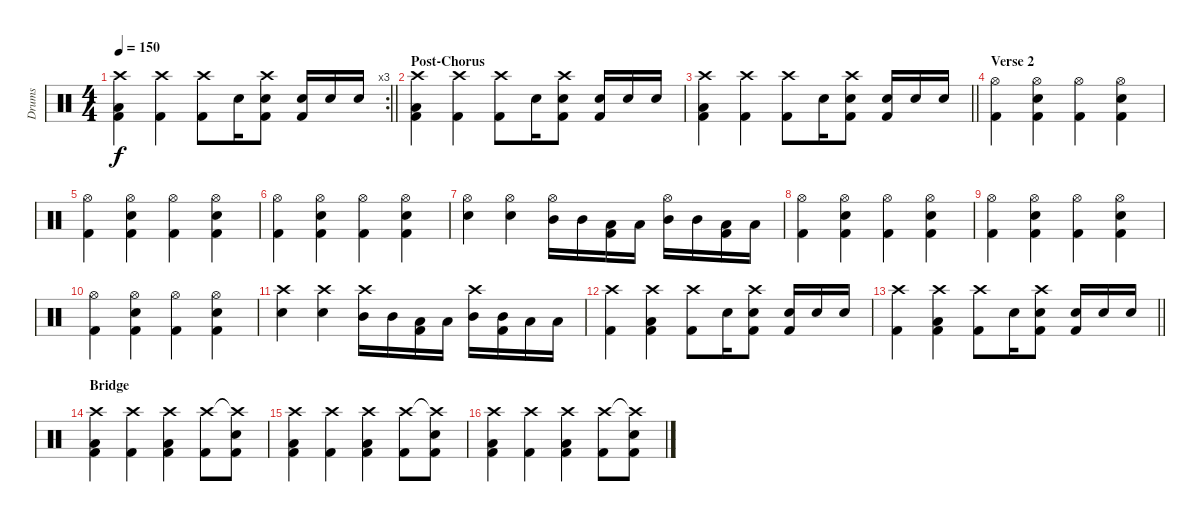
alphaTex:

\track ("Drums" "Drums") {instrument percussion}
\staff {score}
\articulation defaults
\rc 3
\ts (4 4)
\tempo 150
\clef neutral
\barLineRight lightlight
\ks c
("Crash high (hit)" "Kick (hit) 2" "Low Tom (hit)").4{dy f} ("Crash high (hit)" "Kick (hit) 2").4 ("Crash high (hit)" "Kick (hit) 2").8 "Electric Snare (hit)".16 ("Crash high (hit)" "Kick (hit) 2" "Electric Snare (hit)").8 ("Kick (hit) 2" "Electric Snare (hit)").16 "Electric Snare (hit)".16 "Electric Snare (hit)".16 |
\section ("" "Post-Chorus")
("Crash high (hit)" "Kick (hit) 2" "Low Tom (hit)").4 ("Crash high (hit)" "Kick (hit) 2").4 ("Crash high (hit)" "Kick (hit) 2").8 "Electric Snare (hit)".16 ("Crash high (hit)" "Kick (hit) 2" "Electric Snare (hit)").8 ("Kick (hit) 2" "Electric Snare (hit)").16 "Electric Snare (hit)".16 "Electric Snare (hit)".16 |
\barLineRight lightlight
("Crash high (hit)" "Kick (hit) 2" "Low Tom (hit)").4 ("Crash high (hit)" "Kick (hit) 2").4 ("Crash high (hit)" "Kick (hit) 2").8 "Electric Snare (hit)".16 ("Crash high (hit)" "Kick (hit) 2" "Electric Snare (hit)").8 ("Kick (hit) 2" "Electric Snare (hit)").16 "Electric Snare (hit)".16 "Electric Snare (hit)".16 |
\section ("" "Verse 2")
("Hi-Hat (open)" "Kick (hit) 2").4 ("Hi-Hat (open)" "Kick (hit) 2" "Electric Snare (hit)").4 ("Hi-Hat (open)" "Kick (hit) 2").4 ("Hi-Hat (open)" "Kick (hit) 2" "Electric Snare (hit)").4 |
("Hi-Hat (open)" "Kick (hit) 2").4 ("Hi-Hat (open)" "Kick (hit) 2" "Electric Snare (hit)").4 ("Hi-Hat (open)" "Kick (hit) 2").4 ("Hi-Hat (open)" "Kick (hit) 2" "Electric Snare (hit)").4 |
("Hi-Hat (open)" "Kick (hit) 2").4 ("Hi-Hat (open)" "Kick (hit) 2" "Electric Snare (hit)").4 ("Hi-Hat (open)" "Kick (hit) 2").4 ("Hi-Hat (open)" "Kick (hit) 2" "Electric Snare (hit)").4 |
("Hi-Hat (open)" "Electric Snare (hit)").4 ("Hi-Hat (open)" "Electric Snare (hit)").4 ("Hi-Hat (open)" "Mid Tom (hit)").16 "Mid Tom (hit)".16 ("Kick (hit) 2" "Low Tom (hit)").16 "Low Tom (hit)".16 ("Hi-Hat (open)" "Mid Tom (hit)").16 "Mid Tom (hit)".16 ("Kick (hit) 2" "Low Tom (hit)").16 "Low Tom (hit)".16 |
("Hi-Hat (open)" "Kick (hit) 2").4 ("Hi-Hat (open)" "Kick (hit) 2" "Electric Snare (hit)").4 ("Hi-Hat (open)" "Kick (hit) 2").4 ("Hi-Hat (open)" "Kick (hit) 2" "Electric Snare (hit)").4 |
("Hi-Hat (open)" "Kick (hit) 2").4 ("Hi-Hat (open)" "Kick (hit) 2" "Electric Snare (hit)").4 ("Hi-Hat (open)" "Kick (hit) 2").4 ("Hi-Hat (open)" "Kick (hit) 2" "Electric Snare (hit)").4 |
("Hi-Hat (open)" "Kick (hit) 2").4 ("Hi-Hat (open)" "Kick (hit) 2" "Electric Snare (hit)").4 ("Hi-Hat (open)" "Kick (hit) 2").4 ("Hi-Hat (open)" "Kick (hit) 2" "Electric Snare (hit)").4 |
("Crash high (hit)" "Electric Snare (hit)").4 ("Crash high (hit)" "Electric Snare (hit)").4 ("Crash high (hit)" "Mid Tom (hit)").16 "Mid Tom (hit)".16 ("Kick (hit) 2" "Low Tom (hit)").16 "Low Tom (hit)".16 ("Crash high (hit)" "Mid Tom (hit)").16 ("Kick (hit) 2" "Mid Tom (hit)").16 "Low Tom (hit)".16 "Low Tom (hit)".16 |
("Crash high (hit)" "Kick (hit) 2").4 ("Crash high (hit)" "Kick (hit) 2" "Low Tom (hit)").4 ("Crash high (hit)" "Kick (hit) 2").8 "Electric Snare (hit)".16 ("Crash high (hit)" "Kick (hit) 2" "Electric Snare (hit)").8 ("Kick (hit) 2" "Electric Snare (hit)").16 "Electric Snare (hit)".16 "Electric Snare (hit)".16 |
\barLineRight lightlight
("Crash high (hit)" "Kick (hit) 2").4 ("Crash high (hit)" "Kick (hit) 2" "Low Tom (hit)").4 ("Crash high (hit)" "Kick (hit) 2").8 "Electric Snare (hit)".16 ("Crash high (hit)" "Kick (hit) 2" "Electric Snare (hit)").8 ("Kick (hit) 2" "Electric Snare (hit)").16 "Electric Snare (hit)".16 "Electric Snare (hit)".16 |
\section ("" "Bridge")
("Crash high (hit)" "Kick (hit) 2" "Low Tom (hit)").4 ("Crash high (hit)" "Kick (hit) 2").4 ("Crash high (hit)" "Kick (hit) 2" "Low Tom (hit)").4 ("Crash high (hit)" "Kick (hit) 2").8 ("Crash high (hit)"{t} "Kick (hit) 2" "Electric Snare (hit)").8 |
("Crash high (hit)" "Kick (hit) 2" "Low Tom (hit)").4 ("Crash high (hit)" "Kick (hit) 2").4 ("Crash high (hit)" "Kick (hit) 2" "Low Tom (hit)").4 ("Crash high (hit)" "Kick (hit) 2").8 ("Crash high (hit)"{t} "Kick (hit) 2" "Electric Snare (hit)").8 |
("Crash high (hit)" "Kick (hit) 2" "Low Tom (hit)").4 ("Crash high (hit)" "Kick (hit) 2").4 ("Crash high (hit)" "Kick (hit) 2" "Low Tom (hit)").4 ("Crash high (hit)" "Kick (hit) 2").8 ("Crash high (hit)"{t} "Kick (hit) 2" "Electric Snare (hit)").8
